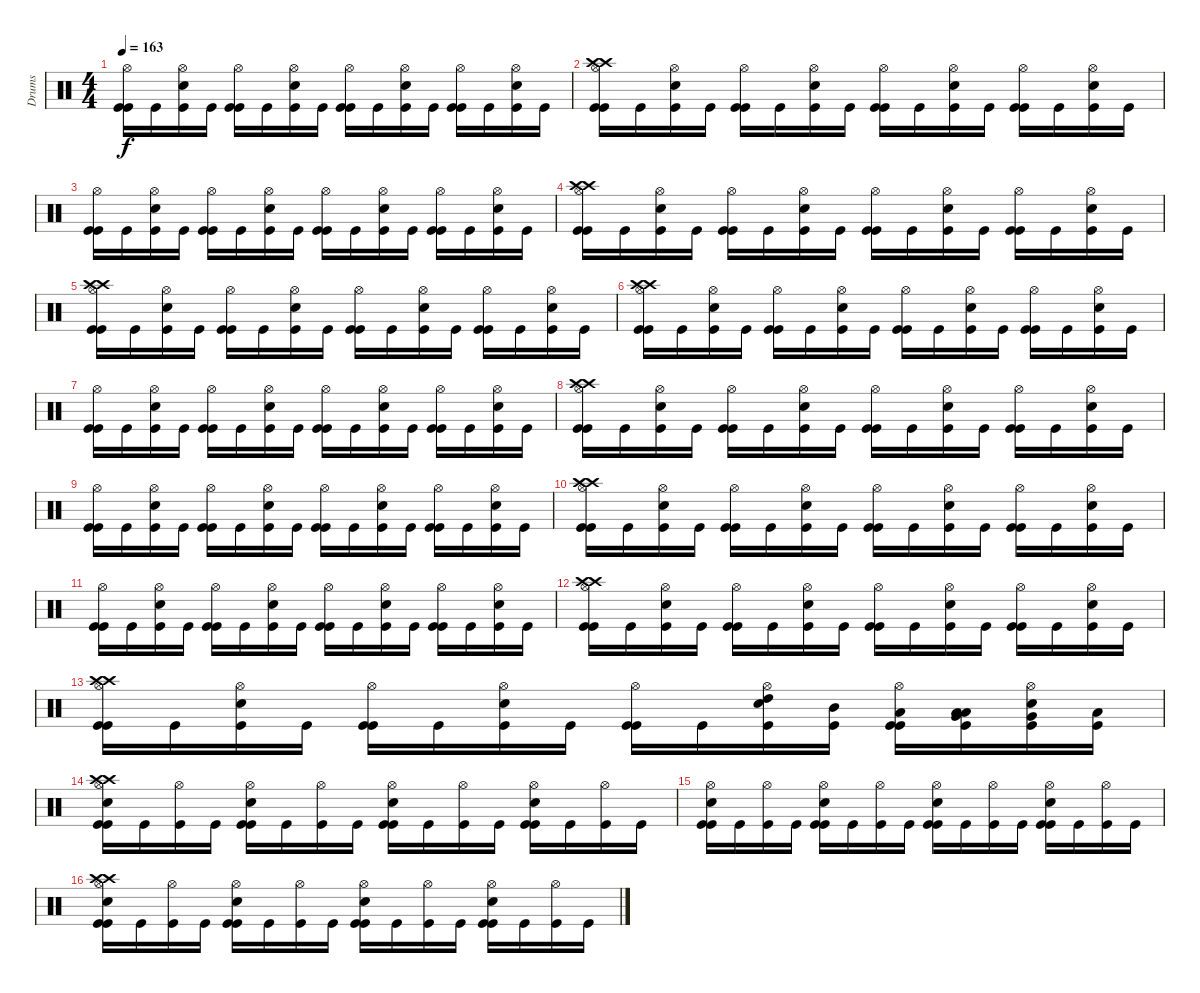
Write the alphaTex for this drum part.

\track ("Drums" "Drums") {instrument percussion}
\staff {score}
\articulation defaults
\ts (4 4)
\tempo 163
\clef neutral
\ks c
("Hi-Hat (open)" "Kick (hit)" "Kick (hit)").16{dy f} "Kick (hit)".16 ("Electric Snare (hit)" "Kick (hit)" "Hi-Hat (open)").16 "Kick (hit)".16 ("Hi-Hat (open)" "Kick (hit)" "Kick (hit)").16 "Kick (hit)".16 ("Electric Snare (hit)" "Kick (hit)" "Hi-Hat (open)").16 "Kick (hit)".16 ("Hi-Hat (open)" "Kick (hit)" "Kick (hit)").16 "Kick (hit)".16 ("Electric Snare (hit)" "Kick (hit)" "Hi-Hat (open)").16 "Kick (hit)".16 ("Hi-Hat (open)" "Kick (hit)" "Kick (hit)").16 "Kick (hit)".16 ("Electric Snare (hit)" "Kick (hit)" "Hi-Hat (open)").16 "Kick (hit)".16 |
("Crash high (hit)" "Crash high (hit)" "Hi-Hat (open)" "Kick (hit)" "Kick (hit)").16 "Kick (hit)".16 ("Electric Snare (hit)" "Kick (hit)" "Hi-Hat (open)").16 "Kick (hit)".16 ("Hi-Hat (open)" "Kick (hit)" "Kick (hit)").16 "Kick (hit)".16 ("Electric Snare (hit)" "Kick (hit)" "Hi-Hat (open)").16 "Kick (hit)".16 ("Hi-Hat (open)" "Kick (hit)" "Kick (hit)").16 "Kick (hit)".16 ("Electric Snare (hit)" "Kick (hit)" "Hi-Hat (open)").16 "Kick (hit)".16 ("Hi-Hat (open)" "Kick (hit)" "Kick (hit)").16 "Kick (hit)".16 ("Electric Snare (hit)" "Kick (hit)" "Hi-Hat (open)").16 "Kick (hit)".16 |
("Hi-Hat (open)" "Kick (hit)" "Kick (hit)").16 "Kick (hit)".16 ("Electric Snare (hit)" "Kick (hit)" "Hi-Hat (open)").16 "Kick (hit)".16 ("Hi-Hat (open)" "Kick (hit)" "Kick (hit)").16 "Kick (hit)".16 ("Electric Snare (hit)" "Kick (hit)" "Hi-Hat (open)").16 "Kick (hit)".16 ("Hi-Hat (open)" "Kick (hit)" "Kick (hit)").16 "Kick (hit)".16 ("Electric Snare (hit)" "Kick (hit)" "Hi-Hat (open)").16 "Kick (hit)".16 ("Hi-Hat (open)" "Kick (hit)" "Kick (hit)").16 "Kick (hit)".16 ("Electric Snare (hit)" "Kick (hit)" "Hi-Hat (open)").16 "Kick (hit)".16 |
("Crash high (hit)" "Crash high (hit)" "Hi-Hat (open)" "Kick (hit)" "Kick (hit)").16 "Kick (hit)".16 ("Electric Snare (hit)" "Kick (hit)" "Hi-Hat (open)").16 "Kick (hit)".16 ("Hi-Hat (open)" "Kick (hit)" "Kick (hit)").16 "Kick (hit)".16 ("Electric Snare (hit)" "Kick (hit)" "Hi-Hat (open)").16 "Kick (hit)".16 ("Hi-Hat (open)" "Kick (hit)" "Kick (hit)").16 "Kick (hit)".16 ("Electric Snare (hit)" "Kick (hit)" "Hi-Hat (open)").16 "Kick (hit)".16 ("Hi-Hat (open)" "Kick (hit)" "Kick (hit)").16 "Kick (hit)".16 ("Electric Snare (hit)" "Kick (hit)" "Hi-Hat (open)").16 "Kick (hit)".16 |
("Crash high (hit)" "Crash high (hit)" "Hi-Hat (open)" "Kick (hit)" "Kick (hit)").16 "Kick (hit)".16 ("Electric Snare (hit)" "Kick (hit)" "Hi-Hat (open)").16 "Kick (hit)".16 ("Hi-Hat (open)" "Kick (hit)" "Kick (hit)").16 "Kick (hit)".16 ("Electric Snare (hit)" "Kick (hit)" "Hi-Hat (open)").16 "Kick (hit)".16 ("Hi-Hat (open)" "Kick (hit)" "Kick (hit)").16 "Kick (hit)".16 ("Electric Snare (hit)" "Kick (hit)" "Hi-Hat (open)").16 "Kick (hit)".16 ("Hi-Hat (open)" "Kick (hit)" "Kick (hit)").16 "Kick (hit)".16 ("Electric Snare (hit)" "Kick (hit)" "Hi-Hat (open)").16 "Kick (hit)".16 |
("Crash high (hit)" "Crash high (hit)" "Hi-Hat (open)" "Kick (hit)" "Kick (hit)").16 "Kick (hit)".16 ("Electric Snare (hit)" "Kick (hit)" "Hi-Hat (open)").16 "Kick (hit)".16 ("Hi-Hat (open)" "Kick (hit)" "Kick (hit)").16 "Kick (hit)".16 ("Electric Snare (hit)" "Kick (hit)" "Hi-Hat (open)").16 "Kick (hit)".16 ("Hi-Hat (open)" "Kick (hit)" "Kick (hit)").16 "Kick (hit)".16 ("Electric Snare (hit)" "Kick (hit)" "Hi-Hat (open)").16 "Kick (hit)".16 ("Hi-Hat (open)" "Kick (hit)" "Kick (hit)").16 "Kick (hit)".16 ("Electric Snare (hit)" "Kick (hit)" "Hi-Hat (open)").16 "Kick (hit)".16 |
("Hi-Hat (open)" "Kick (hit)" "Kick (hit)").16 "Kick (hit)".16 ("Electric Snare (hit)" "Kick (hit)" "Hi-Hat (open)").16 "Kick (hit)".16 ("Hi-Hat (open)" "Kick (hit)" "Kick (hit)").16 "Kick (hit)".16 ("Electric Snare (hit)" "Kick (hit)" "Hi-Hat (open)").16 "Kick (hit)".16 ("Hi-Hat (open)" "Kick (hit)" "Kick (hit)").16 "Kick (hit)".16 ("Electric Snare (hit)" "Kick (hit)" "Hi-Hat (open)").16 "Kick (hit)".16 ("Hi-Hat (open)" "Kick (hit)" "Kick (hit)").16 "Kick (hit)".16 ("Electric Snare (hit)" "Kick (hit)" "Hi-Hat (open)").16 "Kick (hit)".16 |
("Crash high (hit)" "Crash high (hit)" "Hi-Hat (open)" "Kick (hit)" "Kick (hit)").16 "Kick (hit)".16 ("Electric Snare (hit)" "Kick (hit)" "Hi-Hat (open)").16 "Kick (hit)".16 ("Hi-Hat (open)" "Kick (hit)" "Kick (hit)").16 "Kick (hit)".16 ("Electric Snare (hit)" "Kick (hit)" "Hi-Hat (open)").16 "Kick (hit)".16 ("Hi-Hat (open)" "Kick (hit)" "Kick (hit)").16 "Kick (hit)".16 ("Electric Snare (hit)" "Kick (hit)" "Hi-Hat (open)").16 "Kick (hit)".16 ("Hi-Hat (open)" "Kick (hit)" "Kick (hit)").16 "Kick (hit)".16 ("Electric Snare (hit)" "Kick (hit)" "Hi-Hat (open)").16 "Kick (hit)".16 |
("Hi-Hat (open)" "Kick (hit)" "Kick (hit)").16 "Kick (hit)".16 ("Electric Snare (hit)" "Kick (hit)" "Hi-Hat (open)").16 "Kick (hit)".16 ("Hi-Hat (open)" "Kick (hit)" "Kick (hit)").16 "Kick (hit)".16 ("Electric Snare (hit)" "Kick (hit)" "Hi-Hat (open)").16 "Kick (hit)".16 ("Hi-Hat (open)" "Kick (hit)" "Kick (hit)").16 "Kick (hit)".16 ("Electric Snare (hit)" "Kick (hit)" "Hi-Hat (open)").16 "Kick (hit)".16 ("Hi-Hat (open)" "Kick (hit)" "Kick (hit)").16 "Kick (hit)".16 ("Electric Snare (hit)" "Kick (hit)" "Hi-Hat (open)").16 "Kick (hit)".16 |
("Crash high (hit)" "Crash high (hit)" "Hi-Hat (open)" "Kick (hit)" "Kick (hit)").16 "Kick (hit)".16 ("Electric Snare (hit)" "Kick (hit)" "Hi-Hat (open)").16 "Kick (hit)".16 ("Hi-Hat (open)" "Kick (hit)" "Kick (hit)").16 "Kick (hit)".16 ("Electric Snare (hit)" "Kick (hit)" "Hi-Hat (open)").16 "Kick (hit)".16 ("Hi-Hat (open)" "Kick (hit)" "Kick (hit)").16 "Kick (hit)".16 ("Electric Snare (hit)" "Kick (hit)" "Hi-Hat (open)").16 "Kick (hit)".16 ("Hi-Hat (open)" "Kick (hit)" "Kick (hit)").16 "Kick (hit)".16 ("Electric Snare (hit)" "Kick (hit)" "Hi-Hat (open)").16 "Kick (hit)".16 |
("Hi-Hat (open)" "Kick (hit)" "Kick (hit)").16 "Kick (hit)".16 ("Electric Snare (hit)" "Kick (hit)" "Hi-Hat (open)").16 "Kick (hit)".16 ("Hi-Hat (open)" "Kick (hit)" "Kick (hit)").16 "Kick (hit)".16 ("Electric Snare (hit)" "Kick (hit)" "Hi-Hat (open)").16 "Kick (hit)".16 ("Hi-Hat (open)" "Kick (hit)" "Kick (hit)").16 "Kick (hit)".16 ("Electric Snare (hit)" "Kick (hit)" "Hi-Hat (open)").16 "Kick (hit)".16 ("Hi-Hat (open)" "Kick (hit)" "Kick (hit)").16 "Kick (hit)".16 ("Electric Snare (hit)" "Kick (hit)" "Hi-Hat (open)").16 "Kick (hit)".16 |
("Crash high (hit)" "Crash high (hit)" "Hi-Hat (open)" "Kick (hit)" "Kick (hit)").16 "Kick (hit)".16 ("Electric Snare (hit)" "Kick (hit)" "Hi-Hat (open)").16 "Kick (hit)".16 ("Hi-Hat (open)" "Kick (hit)" "Kick (hit)").16 "Kick (hit)".16 ("Electric Snare (hit)" "Kick (hit)" "Hi-Hat (open)").16 "Kick (hit)".16 ("Hi-Hat (open)" "Kick (hit)" "Kick (hit)").16 "Kick (hit)".16 ("Electric Snare (hit)" "Kick (hit)" "Hi-Hat (open)").16 "Kick (hit)".16 ("Hi-Hat (open)" "Kick (hit)" "Kick (hit)").16 "Kick (hit)".16 ("Electric Snare (hit)" "Kick (hit)" "Hi-Hat (open)").16 "Kick (hit)".16 |
("Crash high (hit)" "Crash high (hit)" "Hi-Hat (open)" "Kick (hit)" "Kick (hit)").16 "Kick (hit)".16 ("Electric Snare (hit)" "Kick (hit)" "Hi-Hat (open)").16 "Kick (hit)".16 ("Hi-Hat (open)" "Kick (hit)" "Kick (hit)").16 "Kick (hit)".16 ("Electric Snare (hit)" "Kick (hit)" "Hi-Hat (open)").16 "Kick (hit)".16 ("Hi-Hat (open)" "Kick (hit)" "Kick (hit)").16 "Kick (hit)".16 ("High Tom (hit)" "Electric Snare (hit)" "Kick (hit)" "Hi-Hat (open)").16 ("Mid Tom (hit)" "Kick (hit)").16 ("Low Tom (hit)" "Hi-Hat (open)" "Kick (hit)" "Kick (hit)").16 ("Low Floor Tom (hit)" "Very Low Tom (hit)" "Low Tom (hit)" "Kick (hit)").16 ("Very Low Tom (hit)" "Electric Snare (hit)" "Kick (hit)" "Hi-Hat (open)").16 ("Low Floor Tom (hit)" "Kick (hit)").16 |
("Electric Snare (hit)" "Crash high (hit)" "Crash high (hit)" "Hi-Hat (open)" "Kick (hit)" "Kick (hit)").16 "Kick (hit)".16 ("Kick (hit)" "Hi-Hat (open)").16 "Kick (hit)".16 ("Electric Snare (hit)" "Hi-Hat (open)" "Kick (hit)" "Kick (hit)").16 "Kick (hit)".16 ("Kick (hit)" "Hi-Hat (open)").16 "Kick (hit)".16 ("Electric Snare (hit)" "Hi-Hat (open)" "Kick (hit)" "Kick (hit)").16 "Kick (hit)".16 ("Kick (hit)" "Hi-Hat (open)").16 "Kick (hit)".16 ("Electric Snare (hit)" "Hi-Hat (open)" "Kick (hit)" "Kick (hit)").16 "Kick (hit)".16 ("Kick (hit)" "Hi-Hat (open)").16 "Kick (hit)".16 |
("Electric Snare (hit)" "Hi-Hat (open)" "Kick (hit)" "Kick (hit)").16 "Kick (hit)".16 ("Kick (hit)" "Hi-Hat (open)").16 "Kick (hit)".16 ("Electric Snare (hit)" "Hi-Hat (open)" "Kick (hit)" "Kick (hit)").16 "Kick (hit)".16 ("Kick (hit)" "Hi-Hat (open)").16 "Kick (hit)".16 ("Electric Snare (hit)" "Hi-Hat (open)" "Kick (hit)" "Kick (hit)").16 "Kick (hit)".16 ("Kick (hit)" "Hi-Hat (open)").16 "Kick (hit)".16 ("Electric Snare (hit)" "Hi-Hat (open)" "Kick (hit)" "Kick (hit)").16 "Kick (hit)".16 ("Kick (hit)" "Hi-Hat (open)").16 "Kick (hit)".16 |
("Electric Snare (hit)" "Crash high (hit)" "Crash high (hit)" "Hi-Hat (open)" "Kick (hit)" "Kick (hit)").16 "Kick (hit)".16 ("Kick (hit)" "Hi-Hat (open)").16 "Kick (hit)".16 ("Electric Snare (hit)" "Hi-Hat (open)" "Kick (hit)" "Kick (hit)").16 "Kick (hit)".16 ("Kick (hit)" "Hi-Hat (open)").16 "Kick (hit)".16 ("Electric Snare (hit)" "Hi-Hat (open)" "Kick (hit)" "Kick (hit)").16 "Kick (hit)".16 ("Kick (hit)" "Hi-Hat (open)").16 "Kick (hit)".16 ("Electric Snare (hit)" "Hi-Hat (open)" "Kick (hit)" "Kick (hit)").16 "Kick (hit)".16 ("Kick (hit)" "Hi-Hat (open)").16 "Kick (hit)".16
